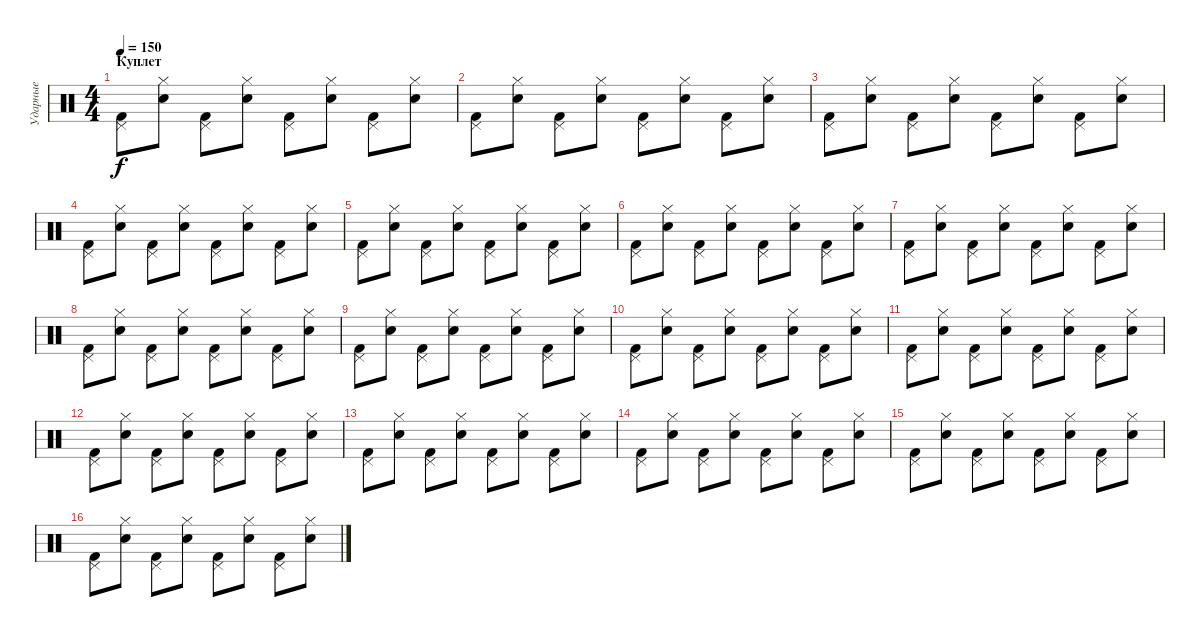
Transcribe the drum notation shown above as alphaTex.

\track ("Ударные" "Ударные") {instrument percussion}
\staff {score}
\articulation defaults
\ts (4 4)
\section ("" "Куплет")
\tempo 150
\clef neutral
\ks c
("Pedal Hi-Hat (hit)" "Kick (hit) 2").8{dy f} ("Hi-Hat (closed)" "Snare (hit) 2").8 ("Pedal Hi-Hat (hit)" "Kick (hit) 2").8 ("Hi-Hat (closed)" "Snare (hit) 2").8 ("Pedal Hi-Hat (hit)" "Kick (hit) 2").8 ("Hi-Hat (closed)" "Snare (hit) 2").8 ("Pedal Hi-Hat (hit)" "Kick (hit) 2").8 ("Hi-Hat (closed)" "Snare (hit) 2").8 |
("Pedal Hi-Hat (hit)" "Kick (hit) 2").8 ("Hi-Hat (closed)" "Snare (hit) 2").8 ("Pedal Hi-Hat (hit)" "Kick (hit) 2").8 ("Hi-Hat (closed)" "Snare (hit) 2").8 ("Pedal Hi-Hat (hit)" "Kick (hit) 2").8 ("Hi-Hat (closed)" "Snare (hit) 2").8 ("Pedal Hi-Hat (hit)" "Kick (hit) 2").8 ("Hi-Hat (closed)" "Snare (hit) 2").8 |
("Pedal Hi-Hat (hit)" "Kick (hit) 2").8 ("Hi-Hat (closed)" "Snare (hit) 2").8 ("Pedal Hi-Hat (hit)" "Kick (hit) 2").8 ("Hi-Hat (closed)" "Snare (hit) 2").8 ("Pedal Hi-Hat (hit)" "Kick (hit) 2").8 ("Hi-Hat (closed)" "Snare (hit) 2").8 ("Pedal Hi-Hat (hit)" "Kick (hit) 2").8 ("Hi-Hat (closed)" "Snare (hit) 2").8 |
("Pedal Hi-Hat (hit)" "Kick (hit) 2").8 ("Hi-Hat (closed)" "Snare (hit) 2").8 ("Pedal Hi-Hat (hit)" "Kick (hit) 2").8 ("Hi-Hat (closed)" "Snare (hit) 2").8 ("Pedal Hi-Hat (hit)" "Kick (hit) 2").8 ("Hi-Hat (closed)" "Snare (hit) 2").8 ("Pedal Hi-Hat (hit)" "Kick (hit) 2").8 ("Hi-Hat (closed)" "Snare (hit) 2").8 |
("Pedal Hi-Hat (hit)" "Kick (hit) 2").8 ("Hi-Hat (closed)" "Snare (hit) 2").8 ("Pedal Hi-Hat (hit)" "Kick (hit) 2").8 ("Hi-Hat (closed)" "Snare (hit) 2").8 ("Pedal Hi-Hat (hit)" "Kick (hit) 2").8 ("Hi-Hat (closed)" "Snare (hit) 2").8 ("Pedal Hi-Hat (hit)" "Kick (hit) 2").8 ("Hi-Hat (closed)" "Snare (hit) 2").8 |
("Pedal Hi-Hat (hit)" "Kick (hit) 2").8 ("Hi-Hat (closed)" "Snare (hit) 2").8 ("Pedal Hi-Hat (hit)" "Kick (hit) 2").8 ("Hi-Hat (closed)" "Snare (hit) 2").8 ("Pedal Hi-Hat (hit)" "Kick (hit) 2").8 ("Hi-Hat (closed)" "Snare (hit) 2").8 ("Pedal Hi-Hat (hit)" "Kick (hit) 2").8 ("Hi-Hat (closed)" "Snare (hit) 2").8 |
("Pedal Hi-Hat (hit)" "Kick (hit) 2").8 ("Hi-Hat (closed)" "Snare (hit) 2").8 ("Pedal Hi-Hat (hit)" "Kick (hit) 2").8 ("Hi-Hat (closed)" "Snare (hit) 2").8 ("Pedal Hi-Hat (hit)" "Kick (hit) 2").8 ("Hi-Hat (closed)" "Snare (hit) 2").8 ("Pedal Hi-Hat (hit)" "Kick (hit) 2").8 ("Hi-Hat (closed)" "Snare (hit) 2").8 |
("Pedal Hi-Hat (hit)" "Kick (hit) 2").8 ("Hi-Hat (closed)" "Snare (hit) 2").8 ("Pedal Hi-Hat (hit)" "Kick (hit) 2").8 ("Hi-Hat (closed)" "Snare (hit) 2").8 ("Pedal Hi-Hat (hit)" "Kick (hit) 2").8 ("Hi-Hat (closed)" "Snare (hit) 2").8 ("Pedal Hi-Hat (hit)" "Kick (hit) 2").8 ("Hi-Hat (closed)" "Snare (hit) 2").8 |
("Pedal Hi-Hat (hit)" "Kick (hit) 2").8 ("Hi-Hat (closed)" "Snare (hit) 2").8 ("Pedal Hi-Hat (hit)" "Kick (hit) 2").8 ("Hi-Hat (closed)" "Snare (hit) 2").8 ("Pedal Hi-Hat (hit)" "Kick (hit) 2").8 ("Hi-Hat (closed)" "Snare (hit) 2").8 ("Pedal Hi-Hat (hit)" "Kick (hit) 2").8 ("Hi-Hat (closed)" "Snare (hit) 2").8 |
("Pedal Hi-Hat (hit)" "Kick (hit) 2").8 ("Hi-Hat (closed)" "Snare (hit) 2").8 ("Pedal Hi-Hat (hit)" "Kick (hit) 2").8 ("Hi-Hat (closed)" "Snare (hit) 2").8 ("Pedal Hi-Hat (hit)" "Kick (hit) 2").8 ("Hi-Hat (closed)" "Snare (hit) 2").8 ("Pedal Hi-Hat (hit)" "Kick (hit) 2").8 ("Hi-Hat (closed)" "Snare (hit) 2").8 |
("Pedal Hi-Hat (hit)" "Kick (hit) 2").8 ("Hi-Hat (closed)" "Snare (hit) 2").8 ("Pedal Hi-Hat (hit)" "Kick (hit) 2").8 ("Hi-Hat (closed)" "Snare (hit) 2").8 ("Pedal Hi-Hat (hit)" "Kick (hit) 2").8 ("Hi-Hat (closed)" "Snare (hit) 2").8 ("Pedal Hi-Hat (hit)" "Kick (hit) 2").8 ("Hi-Hat (closed)" "Snare (hit) 2").8 |
("Pedal Hi-Hat (hit)" "Kick (hit) 2").8 ("Hi-Hat (closed)" "Snare (hit) 2").8 ("Pedal Hi-Hat (hit)" "Kick (hit) 2").8 ("Hi-Hat (closed)" "Snare (hit) 2").8 ("Pedal Hi-Hat (hit)" "Kick (hit) 2").8 ("Hi-Hat (closed)" "Snare (hit) 2").8 ("Pedal Hi-Hat (hit)" "Kick (hit) 2").8 ("Hi-Hat (closed)" "Snare (hit) 2").8 |
("Pedal Hi-Hat (hit)" "Kick (hit) 2").8 ("Hi-Hat (closed)" "Snare (hit) 2").8 ("Pedal Hi-Hat (hit)" "Kick (hit) 2").8 ("Hi-Hat (closed)" "Snare (hit) 2").8 ("Pedal Hi-Hat (hit)" "Kick (hit) 2").8 ("Hi-Hat (closed)" "Snare (hit) 2").8 ("Pedal Hi-Hat (hit)" "Kick (hit) 2").8 ("Hi-Hat (closed)" "Snare (hit) 2").8 |
("Pedal Hi-Hat (hit)" "Kick (hit) 2").8 ("Hi-Hat (closed)" "Snare (hit) 2").8 ("Pedal Hi-Hat (hit)" "Kick (hit) 2").8 ("Hi-Hat (closed)" "Snare (hit) 2").8 ("Pedal Hi-Hat (hit)" "Kick (hit) 2").8 ("Hi-Hat (closed)" "Snare (hit) 2").8 ("Pedal Hi-Hat (hit)" "Kick (hit) 2").8 ("Hi-Hat (closed)" "Snare (hit) 2").8 |
("Pedal Hi-Hat (hit)" "Kick (hit) 2").8 ("Hi-Hat (closed)" "Snare (hit) 2").8 ("Pedal Hi-Hat (hit)" "Kick (hit) 2").8 ("Hi-Hat (closed)" "Snare (hit) 2").8 ("Pedal Hi-Hat (hit)" "Kick (hit) 2").8 ("Hi-Hat (closed)" "Snare (hit) 2").8 ("Pedal Hi-Hat (hit)" "Kick (hit) 2").8 ("Hi-Hat (closed)" "Snare (hit) 2").8 |
("Pedal Hi-Hat (hit)" "Kick (hit) 2").8 ("Hi-Hat (closed)" "Snare (hit) 2").8 ("Pedal Hi-Hat (hit)" "Kick (hit) 2").8 ("Hi-Hat (closed)" "Snare (hit) 2").8 ("Pedal Hi-Hat (hit)" "Kick (hit) 2").8 ("Hi-Hat (closed)" "Snare (hit) 2").8 ("Pedal Hi-Hat (hit)" "Kick (hit) 2").8 ("Hi-Hat (closed)" "Snare (hit) 2").8
